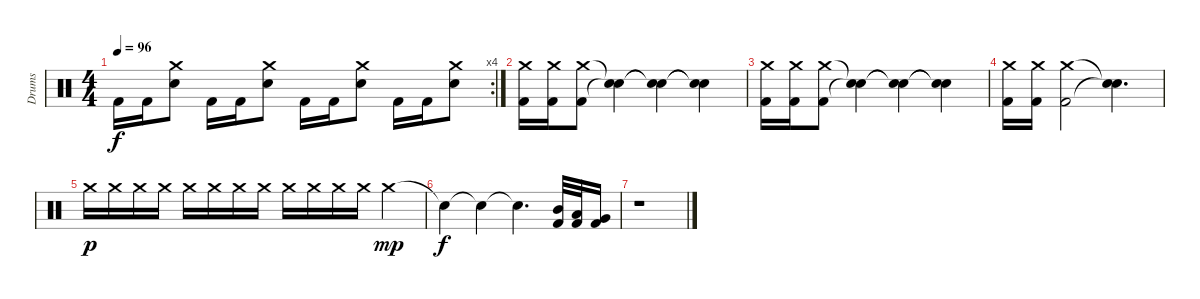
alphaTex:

\track ("Drums" "Drums") {instrument percussion}
\staff {score}
\articulation defaults
\rc 4
\ts (4 4)
\tempo 96
\clef neutral
\ks c "Kick (hit) 2".16{dy f} "Kick (hit) 2".16
("Crash medium (hit)" "Electric Snare (hit)").8 "Kick (hit) 2".16 "Kick (hit) 2".16 ("Crash medium (hit)" "Electric Snare (hit)").8 "Kick (hit) 2".16 "Kick (hit) 2".16 ("Crash medium (hit)" "Electric Snare (hit)").8 "Kick (hit) 2".16 "Kick (hit) 2".16 ("Crash medium (hit)" "Electric Snare (hit)").8 |
("Crash medium (hit)" "Kick (hit) 2").16 ("Crash medium (hit)" "Kick (hit) 2").16 ("Crash medium (hit)" "Kick (hit) 2").8 ("Snare (hit)"{t} "Snare (hit)"{t}).4 ("Snare (hit)"{t} "Snare (hit)"{t}).4 ("Snare (hit)"{t} "Snare (hit)"{t}).4 |
("Crash medium (hit)" "Kick (hit) 2").16 ("Crash medium (hit)" "Kick (hit) 2").16 ("Crash medium (hit)" "Kick (hit) 2").8 ("Snare (hit)"{t} "Snare (hit)"{t}).4 ("Snare (hit)"{t} "Snare (hit)"{t}).4 ("Snare (hit)"{t} "Snare (hit)"{t}).4 |
("Crash medium (hit)" "Kick (hit) 2").16 ("Crash medium (hit)" "Kick (hit) 2").16 ("Crash medium (hit)" "Kick (hit) 2").2 ("Snare (hit)"{t} "Snare (hit)"{t}).4{d} |
"Crash medium (hit)".16{dy p} "Crash medium (hit)".16 "Crash medium (hit)".16 "Crash medium (hit)".16 "Crash medium (hit)".16 "Crash medium (hit)".16 "Crash medium (hit)".16 "Crash medium (hit)".16 "Crash medium (hit)".16 "Crash medium (hit)".16 "Crash medium (hit)".16 "Crash medium (hit)".16 "Crash medium (hit)".4{dy mp} |
"Snare (hit)"{t}.4{dy f} "Snare (hit)"{t}.4 "Snare (hit)"{t}.4{d} ("Mid Tom (hit)" "Kick (hit) 2").32 ("Low Tom (hit)" "Kick (hit) 2").32 ("Very Low Tom (hit)" "Kick (hit) 2").16 |
r.1
